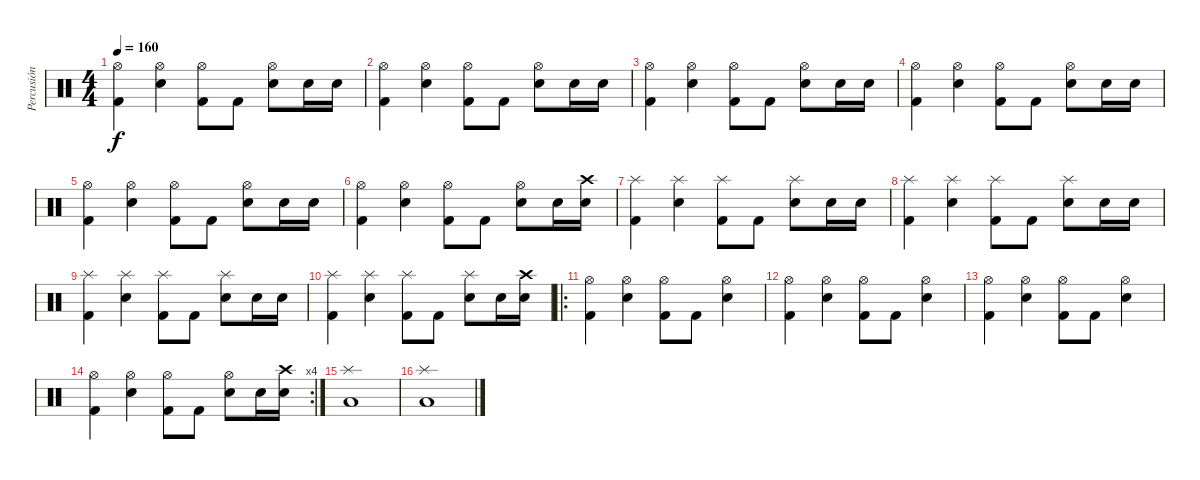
\track ("Percusión" "Percusión") {instrument percussion}
\staff {score}
\articulation defaults
\ts (4 4)
\tempo 160
\clef neutral
\ks c
("Hi-Hat (open)" "Kick (hit) 2").4{dy f} ("Electric Snare (hit)" "Hi-Hat (open)").4 ("Hi-Hat (open)" "Kick (hit) 2").8 "Kick (hit) 2".8 ("Electric Snare (hit)" "Hi-Hat (open)").8 "Electric Snare (hit)".16 "Electric Snare (hit)".16 |
("Hi-Hat (open)" "Kick (hit) 2").4 ("Electric Snare (hit)" "Hi-Hat (open)").4 ("Hi-Hat (open)" "Kick (hit) 2").8 "Kick (hit) 2".8 ("Electric Snare (hit)" "Hi-Hat (open)").8 "Electric Snare (hit)".16 "Electric Snare (hit)".16 |
("Hi-Hat (open)" "Kick (hit) 2").4 ("Hi-Hat (open)" "Electric Snare (hit)").4 ("Hi-Hat (open)" "Kick (hit) 2").8 "Kick (hit) 2".8 ("Hi-Hat (open)" "Electric Snare (hit)").8 "Electric Snare (hit)".16 "Electric Snare (hit)".16 |
("Hi-Hat (open)" "Kick (hit) 2").4 ("Hi-Hat (open)" "Electric Snare (hit)").4 ("Hi-Hat (open)" "Kick (hit) 2").8 "Kick (hit) 2".8 ("Hi-Hat (open)" "Electric Snare (hit)").8 "Electric Snare (hit)".16 "Electric Snare (hit)".16 |
("Hi-Hat (open)" "Kick (hit) 2").4 ("Hi-Hat (open)" "Electric Snare (hit)").4 ("Hi-Hat (open)" "Kick (hit) 2").8 "Kick (hit) 2".8 ("Hi-Hat (open)" "Electric Snare (hit)").8 "Electric Snare (hit)".16 "Electric Snare (hit)".16 |
("Hi-Hat (open)" "Kick (hit) 2").4 ("Hi-Hat (open)" "Electric Snare (hit)").4 ("Hi-Hat (open)" "Kick (hit) 2").8 "Kick (hit) 2".8 ("Hi-Hat (open)" "Electric Snare (hit)").8 "Electric Snare (hit)".16 ("Crash high (hit)" "Electric Snare (hit)").16 |
("Splash (hit)" "Kick (hit) 2").4 ("Splash (hit)" "Electric Snare (hit)").4 ("Splash (hit)" "Kick (hit) 2").8 "Kick (hit) 2".8 ("Splash (hit)" "Electric Snare (hit)").8 "Electric Snare (hit)".16 "Electric Snare (hit)".16 |
("Splash (hit)" "Kick (hit) 2").4 ("Splash (hit)" "Electric Snare (hit)").4 ("Splash (hit)" "Kick (hit) 2").8 "Kick (hit) 2".8 ("Splash (hit)" "Electric Snare (hit)").8 "Electric Snare (hit)".16 "Electric Snare (hit)".16 |
("Splash (hit)" "Kick (hit) 2").4 ("Splash (hit)" "Electric Snare (hit)").4 ("Splash (hit)" "Kick (hit) 2").8 "Kick (hit) 2".8 ("Splash (hit)" "Electric Snare (hit)").8 "Electric Snare (hit)".16 "Electric Snare (hit)".16 |
("Splash (hit)" "Kick (hit) 2").4 ("Splash (hit)" "Electric Snare (hit)").4 ("Splash (hit)" "Kick (hit) 2").8 "Kick (hit) 2".8 ("Splash (hit)" "Electric Snare (hit)").8 "Electric Snare (hit)".16 ("Crash high (hit)" "Electric Snare (hit)").16 |
\ro
("Hi-Hat (open)" "Kick (hit) 2").4 ("Hi-Hat (open)" "Electric Snare (hit)").4 ("Hi-Hat (open)" "Kick (hit) 2").8 "Kick (hit) 2".8 ("Hi-Hat (open)" "Electric Snare (hit)").4 |
("Hi-Hat (open)" "Kick (hit) 2").4 ("Hi-Hat (open)" "Electric Snare (hit)").4 ("Hi-Hat (open)" "Kick (hit) 2").8 "Kick (hit) 2".8 ("Hi-Hat (open)" "Electric Snare (hit)").4 |
("Hi-Hat (open)" "Kick (hit) 2").4 ("Hi-Hat (open)" "Electric Snare (hit)").4 ("Hi-Hat (open)" "Kick (hit) 2").8 "Kick (hit) 2".8 ("Hi-Hat (open)" "Electric Snare (hit)").4 |
\rc 4
("Hi-Hat (open)" "Kick (hit) 2").4 ("Hi-Hat (open)" "Electric Snare (hit)").4 ("Hi-Hat (open)" "Kick (hit) 2").8 "Kick (hit) 2".8 ("Hi-Hat (open)" "Electric Snare (hit)").8 "Electric Snare (hit)".16 ("Crash high (hit)" "Electric Snare (hit)").16 |
("Low Floor Tom (hit)" "Splash (hit)").1 |
("Low Floor Tom (hit)" "Splash (hit)").1
